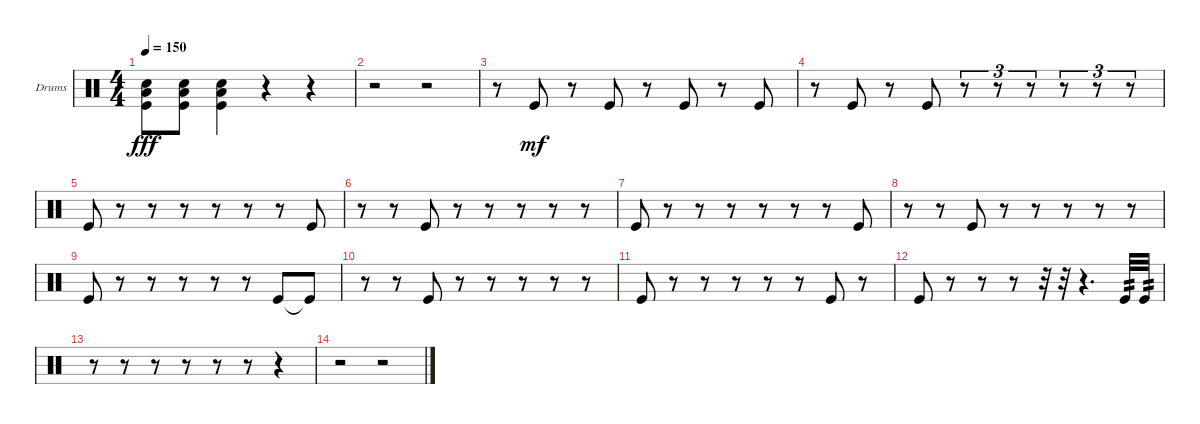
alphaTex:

\bracketExtendMode groupsimilarinstruments
\firstSystemTrackNameOrientation horizontal
\otherSystemsTrackNameOrientation horizontal
\track ("Drumkit Kick" "Drums ") {instrument percussion}
\staff {score}
\articulation defaults
\ts (4 4)
\tempo 150
\clef neutral
\scale
0.333333
\ks c
("Snare (hit) 2" "Kick (hit)" "Low Tom (hit)").8{dy fff} ("Snare (hit) 2" "Kick (hit)" "Low Tom (hit)").8 ("Snare (hit) 2" "Kick (hit)" "Low Tom (hit)").4 r.4 r.4 |
\scale
0.333333 r.2 r.2 |
\scale
0.333333 r.8 "Kick (hit)".8{dy mf} r.8 "Kick (hit)".8 r.8 "Kick (hit)".8 r.8 "Kick (hit)".8 |
\scale
0.333333 r.8 "Kick (hit)".8 r.8 "Kick (hit)".8 r.8{tu (3 2)} r.8{tu (3 2)} r.8{tu (3 2)} r.8{tu (3 2)} r.8{tu (3 2)} r.8{tu (3 2)} |
\scale
0.333333 "Kick (hit)".8 r.8 r.8 r.8 r.8 r.8 r.8 "Kick (hit)".8 |
\scale
0.333333 r.8 r.8 "Kick (hit)".8 r.8 r.8 r.8 r.8 r.8 |
\scale
0.333333 "Kick (hit)".8 r.8 r.8 r.8 r.8 r.8 r.8 "Kick (hit)".8 |
\scale
0.333333 r.8 r.8 "Kick (hit)".8 r.8 r.8 r.8 r.8 r.8 |
\scale
0.333333 "Kick (hit)".8 r.8 r.8 r.8 r.8 r.8 "Kick (hit)".8 "Kick (hit)"{t}.8 |
\scale
0.333333 r.8 r.8 "Kick (hit)".8 r.8 r.8 r.8 r.8 r.8 |
\scale
0.333333 "Kick (hit)".8 r.8 r.8 r.8 r.8 r.8 "Kick (hit)".8 r.8 |
\scale
0.333333 "Kick (hit)".8 r.8 r.8 r.8 r.32 r.32 r.4{d} "Kick (hit)".32{tp 2} "Kick (hit)".32{tp 2} |
\scale
0.333333 r.8 r.8 r.8 r.8 r.8 r.8 r.4 |
\scale
0.333333 r.2 r.2 |
\scale
0.333333 |
\scale
0.333333
